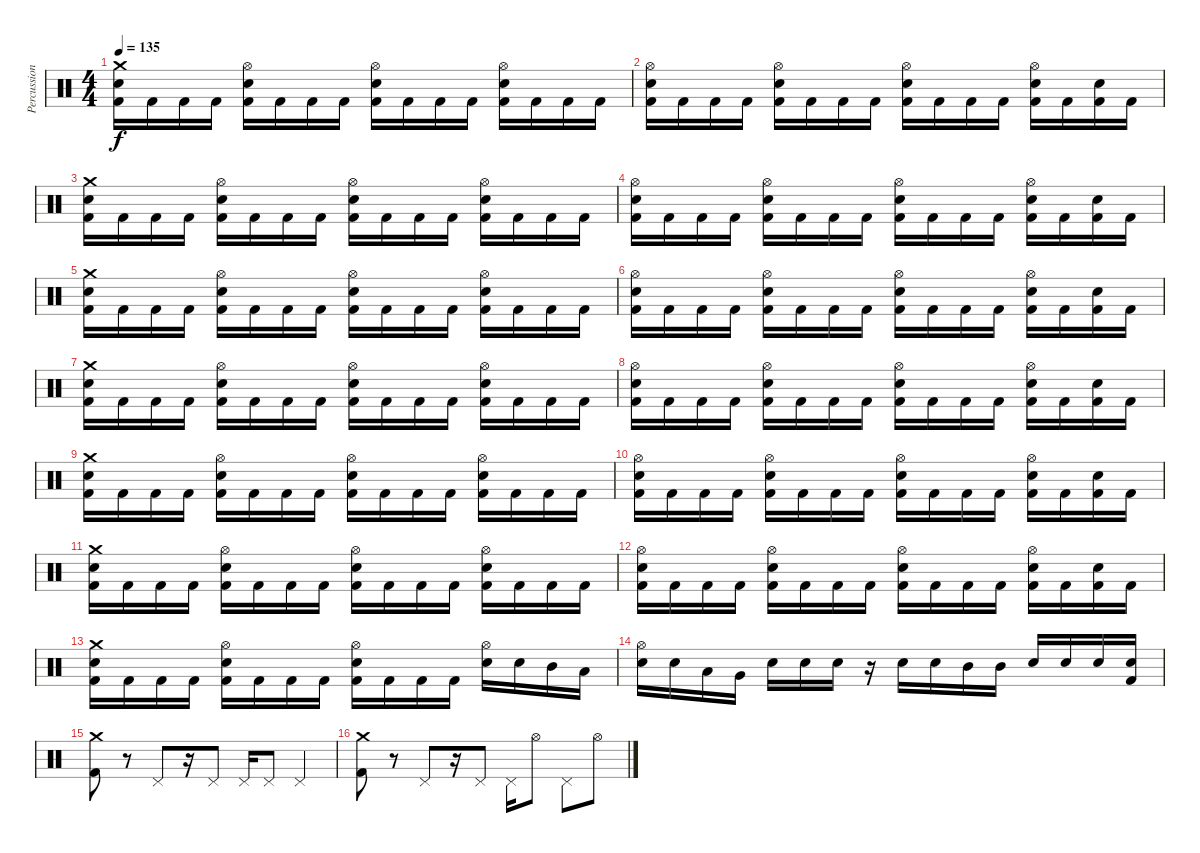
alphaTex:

\track ("Percussion" "Percussion") {instrument percussion}
\staff {score}
\articulation defaults
\ts (4 4)
\tempo 135
\clef neutral
\ks c
("Crash medium (hit)" "Electric Snare (hit)" "Kick (hit) 2").16{dy f} "Kick (hit) 2".16 "Kick (hit) 2".16 "Kick (hit) 2".16 ("Hi-Hat (open)" "Electric Snare (hit)" "Kick (hit) 2").16 "Kick (hit) 2".16 "Kick (hit) 2".16 "Kick (hit) 2".16 ("Hi-Hat (open)" "Electric Snare (hit)" "Kick (hit) 2").16 "Kick (hit) 2".16 "Kick (hit) 2".16 "Kick (hit) 2".16 ("Hi-Hat (open)" "Electric Snare (hit)" "Kick (hit) 2").16 "Kick (hit) 2".16 "Kick (hit) 2".16 "Kick (hit) 2".16 |
("Hi-Hat (open)" "Electric Snare (hit)" "Kick (hit) 2").16 "Kick (hit) 2".16 "Kick (hit) 2".16 "Kick (hit) 2".16 ("Hi-Hat (open)" "Electric Snare (hit)" "Kick (hit) 2").16 "Kick (hit) 2".16 "Kick (hit) 2".16 "Kick (hit) 2".16 ("Hi-Hat (open)" "Electric Snare (hit)" "Kick (hit) 2").16 "Kick (hit) 2".16 "Kick (hit) 2".16 "Kick (hit) 2".16 ("Hi-Hat (open)" "Electric Snare (hit)" "Kick (hit) 2").16 "Kick (hit) 2".16 ("Electric Snare (hit)" "Kick (hit) 2").16 "Kick (hit) 2".16 |
("Crash medium (hit)" "Electric Snare (hit)" "Kick (hit) 2").16 "Kick (hit) 2".16 "Kick (hit) 2".16 "Kick (hit) 2".16 ("Hi-Hat (open)" "Electric Snare (hit)" "Kick (hit) 2").16 "Kick (hit) 2".16 "Kick (hit) 2".16 "Kick (hit) 2".16 ("Hi-Hat (open)" "Electric Snare (hit)" "Kick (hit) 2").16 "Kick (hit) 2".16 "Kick (hit) 2".16 "Kick (hit) 2".16 ("Hi-Hat (open)" "Electric Snare (hit)" "Kick (hit) 2").16 "Kick (hit) 2".16 "Kick (hit) 2".16 "Kick (hit) 2".16 |
("Hi-Hat (open)" "Electric Snare (hit)" "Kick (hit) 2").16 "Kick (hit) 2".16 "Kick (hit) 2".16 "Kick (hit) 2".16 ("Hi-Hat (open)" "Electric Snare (hit)" "Kick (hit) 2").16 "Kick (hit) 2".16 "Kick (hit) 2".16 "Kick (hit) 2".16 ("Hi-Hat (open)" "Electric Snare (hit)" "Kick (hit) 2").16 "Kick (hit) 2".16 "Kick (hit) 2".16 "Kick (hit) 2".16 ("Hi-Hat (open)" "Electric Snare (hit)" "Kick (hit) 2").16 "Kick (hit) 2".16 ("Electric Snare (hit)" "Kick (hit) 2").16 "Kick (hit) 2".16 |
("Crash medium (hit)" "Electric Snare (hit)" "Kick (hit) 2").16 "Kick (hit) 2".16 "Kick (hit) 2".16 "Kick (hit) 2".16 ("Hi-Hat (open)" "Electric Snare (hit)" "Kick (hit) 2").16 "Kick (hit) 2".16 "Kick (hit) 2".16 "Kick (hit) 2".16 ("Hi-Hat (open)" "Electric Snare (hit)" "Kick (hit) 2").16 "Kick (hit) 2".16 "Kick (hit) 2".16 "Kick (hit) 2".16 ("Hi-Hat (open)" "Electric Snare (hit)" "Kick (hit) 2").16 "Kick (hit) 2".16 "Kick (hit) 2".16 "Kick (hit) 2".16 |
("Hi-Hat (open)" "Electric Snare (hit)" "Kick (hit) 2").16 "Kick (hit) 2".16 "Kick (hit) 2".16 "Kick (hit) 2".16 ("Hi-Hat (open)" "Electric Snare (hit)" "Kick (hit) 2").16 "Kick (hit) 2".16 "Kick (hit) 2".16 "Kick (hit) 2".16 ("Hi-Hat (open)" "Electric Snare (hit)" "Kick (hit) 2").16 "Kick (hit) 2".16 "Kick (hit) 2".16 "Kick (hit) 2".16 ("Hi-Hat (open)" "Electric Snare (hit)" "Kick (hit) 2").16 "Kick (hit) 2".16 ("Electric Snare (hit)" "Kick (hit) 2").16 "Kick (hit) 2".16 |
("Crash medium (hit)" "Electric Snare (hit)" "Kick (hit) 2").16 "Kick (hit) 2".16 "Kick (hit) 2".16 "Kick (hit) 2".16 ("Hi-Hat (open)" "Electric Snare (hit)" "Kick (hit) 2").16 "Kick (hit) 2".16 "Kick (hit) 2".16 "Kick (hit) 2".16 ("Hi-Hat (open)" "Electric Snare (hit)" "Kick (hit) 2").16 "Kick (hit) 2".16 "Kick (hit) 2".16 "Kick (hit) 2".16 ("Hi-Hat (open)" "Electric Snare (hit)" "Kick (hit) 2").16 "Kick (hit) 2".16 "Kick (hit) 2".16 "Kick (hit) 2".16 |
("Hi-Hat (open)" "Electric Snare (hit)" "Kick (hit) 2").16 "Kick (hit) 2".16 "Kick (hit) 2".16 "Kick (hit) 2".16 ("Hi-Hat (open)" "Electric Snare (hit)" "Kick (hit) 2").16 "Kick (hit) 2".16 "Kick (hit) 2".16 "Kick (hit) 2".16 ("Hi-Hat (open)" "Electric Snare (hit)" "Kick (hit) 2").16 "Kick (hit) 2".16 "Kick (hit) 2".16 "Kick (hit) 2".16 ("Hi-Hat (open)" "Electric Snare (hit)" "Kick (hit) 2").16 "Kick (hit) 2".16 ("Electric Snare (hit)" "Kick (hit) 2").16 "Kick (hit) 2".16 |
("Crash medium (hit)" "Electric Snare (hit)" "Kick (hit) 2").16 "Kick (hit) 2".16 "Kick (hit) 2".16 "Kick (hit) 2".16 ("Hi-Hat (open)" "Electric Snare (hit)" "Kick (hit) 2").16 "Kick (hit) 2".16 "Kick (hit) 2".16 "Kick (hit) 2".16 ("Hi-Hat (open)" "Electric Snare (hit)" "Kick (hit) 2").16 "Kick (hit) 2".16 "Kick (hit) 2".16 "Kick (hit) 2".16 ("Hi-Hat (open)" "Electric Snare (hit)" "Kick (hit) 2").16 "Kick (hit) 2".16 "Kick (hit) 2".16 "Kick (hit) 2".16 |
("Hi-Hat (open)" "Electric Snare (hit)" "Kick (hit) 2").16 "Kick (hit) 2".16 "Kick (hit) 2".16 "Kick (hit) 2".16 ("Hi-Hat (open)" "Electric Snare (hit)" "Kick (hit) 2").16 "Kick (hit) 2".16 "Kick (hit) 2".16 "Kick (hit) 2".16 ("Hi-Hat (open)" "Electric Snare (hit)" "Kick (hit) 2").16 "Kick (hit) 2".16 "Kick (hit) 2".16 "Kick (hit) 2".16 ("Hi-Hat (open)" "Electric Snare (hit)" "Kick (hit) 2").16 "Kick (hit) 2".16 ("Electric Snare (hit)" "Kick (hit) 2").16 "Kick (hit) 2".16 |
("Crash medium (hit)" "Electric Snare (hit)" "Kick (hit) 2").16 "Kick (hit) 2".16 "Kick (hit) 2".16 "Kick (hit) 2".16 ("Hi-Hat (open)" "Electric Snare (hit)" "Kick (hit) 2").16 "Kick (hit) 2".16 "Kick (hit) 2".16 "Kick (hit) 2".16 ("Hi-Hat (open)" "Electric Snare (hit)" "Kick (hit) 2").16 "Kick (hit) 2".16 "Kick (hit) 2".16 "Kick (hit) 2".16 ("Hi-Hat (open)" "Electric Snare (hit)" "Kick (hit) 2").16 "Kick (hit) 2".16 "Kick (hit) 2".16 "Kick (hit) 2".16 |
("Hi-Hat (open)" "Electric Snare (hit)" "Kick (hit) 2").16 "Kick (hit) 2".16 "Kick (hit) 2".16 "Kick (hit) 2".16 ("Hi-Hat (open)" "Electric Snare (hit)" "Kick (hit) 2").16 "Kick (hit) 2".16 "Kick (hit) 2".16 "Kick (hit) 2".16 ("Hi-Hat (open)" "Electric Snare (hit)" "Kick (hit) 2").16 "Kick (hit) 2".16 "Kick (hit) 2".16 "Kick (hit) 2".16 ("Hi-Hat (open)" "Electric Snare (hit)" "Kick (hit) 2").16 "Kick (hit) 2".16 ("Electric Snare (hit)" "Kick (hit) 2").16 "Kick (hit) 2".16 |
("Crash medium (hit)" "Electric Snare (hit)" "Kick (hit) 2").16 "Kick (hit) 2".16 "Kick (hit) 2".16 "Kick (hit) 2".16 ("Hi-Hat (open)" "Electric Snare (hit)" "Kick (hit) 2").16 "Kick (hit) 2".16 "Kick (hit) 2".16 "Kick (hit) 2".16 ("Hi-Hat (open)" "Electric Snare (hit)" "Kick (hit) 2").16 "Kick (hit) 2".16 "Kick (hit) 2".16 "Kick (hit) 2".16 ("Hi-Hat (open)" "Electric Snare (hit)").16 "Electric Snare (hit)".16 "Mid Tom (hit)".16 "Low Tom (hit)".16 |
("Hi-Hat (open)" "Electric Snare (hit)").16 "Electric Snare (hit)".16 "Low Tom (hit)".16 "Very Low Tom (hit)".16 "Electric Snare (hit)".16 "Electric Snare (hit)".16 "Electric Snare (hit)".16 r.16 "Electric Snare (hit)".16 "Electric Snare (hit)".16 "Mid Tom (hit)".16 "Mid Tom (hit)".16 "Electric Snare (hit)".16 "Electric Snare (hit)".16 "Electric Snare (hit)".16 ("Electric Snare (hit)" "Kick (hit) 2").16 |
("Crash medium (hit)" "Kick (hit) 2").8 r.8 "Pedal Hi-Hat (hit)".8 r.16 "Pedal Hi-Hat (hit)".8 "Pedal Hi-Hat (hit)".16 "Pedal Hi-Hat (hit)".8 "Pedal Hi-Hat (hit)".4 |
("Crash medium (hit)" "Kick (hit) 2").8 r.8 "Pedal Hi-Hat (hit)".8 r.16 "Pedal Hi-Hat (hit)".8 "Pedal Hi-Hat (hit)".16 "Hi-Hat (open)".8 "Pedal Hi-Hat (hit)".8 "Hi-Hat (open)".8
